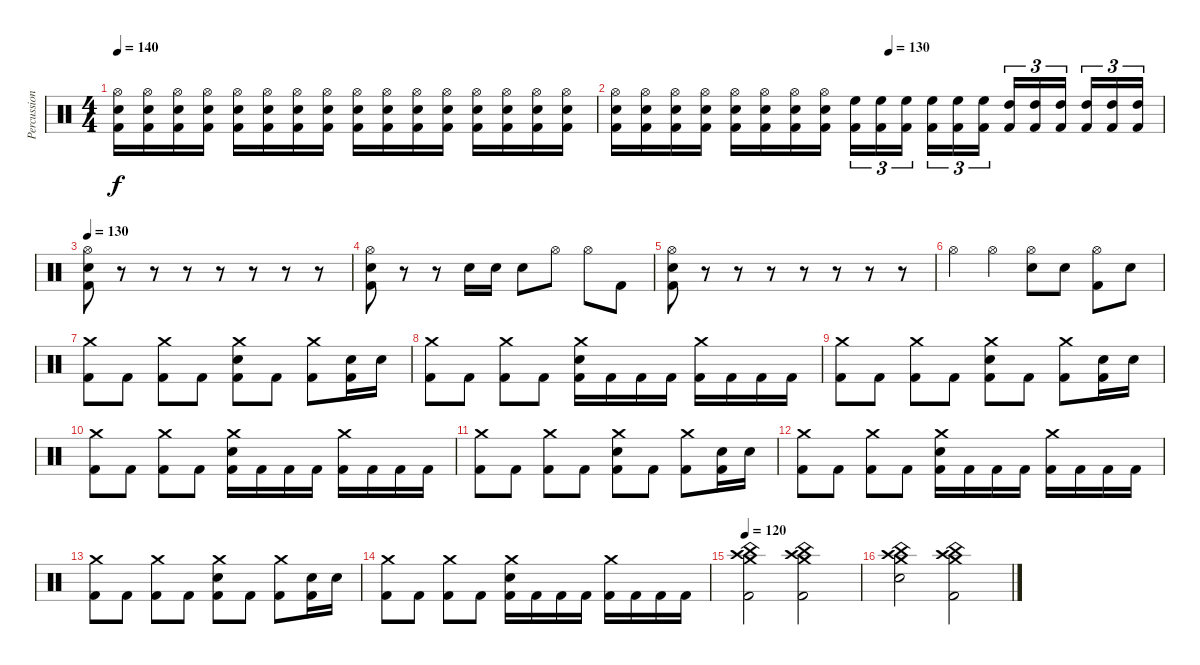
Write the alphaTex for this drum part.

\track ("Percussion" "Percussion") {instrument percussion}
\staff {score}
\articulation defaults
\ts (4 4)
\tempo 140
\clef neutral
\ks c
("Hi-Hat (open)" "Electric Snare (hit)" "Kick (hit) 2").16{dy f} ("Hi-Hat (open)" "Electric Snare (hit)" "Kick (hit) 2").16 ("Hi-Hat (open)" "Electric Snare (hit)" "Kick (hit) 2").16 ("Hi-Hat (open)" "Electric Snare (hit)" "Kick (hit) 2").16 ("Hi-Hat (open)" "Electric Snare (hit)" "Kick (hit) 2").16 ("Hi-Hat (open)" "Electric Snare (hit)" "Kick (hit) 2").16 ("Hi-Hat (open)" "Electric Snare (hit)" "Kick (hit) 2").16 ("Hi-Hat (open)" "Electric Snare (hit)" "Kick (hit) 2").16 ("Hi-Hat (open)" "Electric Snare (hit)" "Kick (hit) 2").16 ("Hi-Hat (open)" "Electric Snare (hit)" "Kick (hit) 2").16 ("Hi-Hat (open)" "Electric Snare (hit)" "Kick (hit) 2").16 ("Hi-Hat (open)" "Electric Snare (hit)" "Kick (hit) 2").16 ("Hi-Hat (open)" "Electric Snare (hit)" "Kick (hit) 2").16 ("Hi-Hat (open)" "Electric Snare (hit)" "Kick (hit) 2").16 ("Hi-Hat (open)" "Electric Snare (hit)" "Kick (hit) 2").16 ("Hi-Hat (open)" "Electric Snare (hit)" "Kick (hit) 2").16 |
\tempo (130 0.5)
("Hi-Hat (open)" "Electric Snare (hit)" "Kick (hit) 2").16 ("Hi-Hat (open)" "Electric Snare (hit)" "Kick (hit) 2").16 ("Hi-Hat (open)" "Electric Snare (hit)" "Kick (hit) 2").16 ("Hi-Hat (open)" "Electric Snare (hit)" "Kick (hit) 2").16 ("Hi-Hat (open)" "Electric Snare (hit)" "Kick (hit) 2").16 ("Hi-Hat (open)" "Electric Snare (hit)" "Kick (hit) 2").16 ("Hi-Hat (open)" "Electric Snare (hit)" "Kick (hit) 2").16 ("Hi-Hat (open)" "Electric Snare (hit)" "Kick (hit) 2").16 ("High Floor Tom (hit)" "Kick (hit) 2").16{tu (3 2)} ("High Floor Tom (hit)" "Kick (hit) 2").16{tu (3 2)} ("High Floor Tom (hit)" "Kick (hit) 2").16{tu (3 2) beam splitsecondary} ("High Floor Tom (hit)" "Kick (hit) 2").16{tu (3 2)} ("High Floor Tom (hit)" "Kick (hit) 2").16{tu (3 2)} ("High Floor Tom (hit)" "Kick (hit) 2").16{tu (3 2)} ("High Tom (hit)" "Kick (hit) 2").16{tu (3 2)} ("High Tom (hit)" "Kick (hit) 2").16{tu (3 2)} ("High Tom (hit)" "Kick (hit) 2").16{tu (3 2) beam splitsecondary} ("High Tom (hit)" "Kick (hit) 2").16{tu (3 2)} ("High Tom (hit)" "Kick (hit) 2").16{tu (3 2)} ("High Tom (hit)" "Kick (hit) 2").16{tu (3 2)} |
\tempo 130
("Hi-Hat (open)" "Electric Snare (hit)" "Kick (hit) 2").8 r.8 r.8 r.8 r.8 r.8 r.8 r.8 |
("Hi-Hat (open)" "Electric Snare (hit)" "Kick (hit) 2").8 r.8 r.8 "Electric Snare (hit)".16 "Electric Snare (hit)".16 "Electric Snare (hit)".8 "Hi-Hat (open)".8 "Hi-Hat (open)".8 "Kick (hit) 2".8 |
("Hi-Hat (open)" "Electric Snare (hit)" "Kick (hit) 2").8 r.8 r.8 r.8 r.8 r.8 r.8 r.8 |
"Hi-Hat (open)".4 "Hi-Hat (open)".4 ("Hi-Hat (open)" "Electric Snare (hit)").8 "Electric Snare (hit)".8 ("Hi-Hat (open)" "Kick (hit) 2").8 "Electric Snare (hit)".8 |
("Crash medium (hit)" "Kick (hit) 2").8 "Kick (hit) 2".8 ("Crash medium (hit)" "Kick (hit) 2").8 "Kick (hit) 2".8 ("Crash medium (hit)" "Electric Snare (hit)" "Kick (hit) 2").8 "Kick (hit) 2".8 ("Crash medium (hit)" "Kick (hit) 2").8 ("Electric Snare (hit)" "Kick (hit) 2").16 "Electric Snare (hit)".16 |
("Crash medium (hit)" "Kick (hit) 2").8 "Kick (hit) 2".8 ("Crash medium (hit)" "Kick (hit) 2").8 "Kick (hit) 2".8 ("Crash medium (hit)" "Electric Snare (hit)" "Kick (hit) 2").16 "Kick (hit) 2".16 "Kick (hit) 2".16 "Kick (hit) 2".16 ("Crash medium (hit)" "Kick (hit) 2").16 "Kick (hit) 2".16 "Kick (hit) 2".16 "Kick (hit) 2".16 |
("Crash medium (hit)" "Kick (hit) 2").8 "Kick (hit) 2".8 ("Crash medium (hit)" "Kick (hit) 2").8 "Kick (hit) 2".8 ("Crash medium (hit)" "Electric Snare (hit)" "Kick (hit) 2").8 "Kick (hit) 2".8 ("Crash medium (hit)" "Kick (hit) 2").8 ("Electric Snare (hit)" "Kick (hit) 2").16 "Electric Snare (hit)".16 |
("Crash medium (hit)" "Kick (hit) 2").8 "Kick (hit) 2".8 ("Crash medium (hit)" "Kick (hit) 2").8 "Kick (hit) 2".8 ("Crash medium (hit)" "Electric Snare (hit)" "Kick (hit) 2").16 "Kick (hit) 2".16 "Kick (hit) 2".16 "Kick (hit) 2".16 ("Crash medium (hit)" "Kick (hit) 2").16 "Kick (hit) 2".16 "Kick (hit) 2".16 "Kick (hit) 2".16 |
("Crash medium (hit)" "Kick (hit) 2").8 "Kick (hit) 2".8 ("Crash medium (hit)" "Kick (hit) 2").8 "Kick (hit) 2".8 ("Crash medium (hit)" "Electric Snare (hit)" "Kick (hit) 2").8 "Kick (hit) 2".8 ("Crash medium (hit)" "Kick (hit) 2").8 ("Electric Snare (hit)" "Kick (hit) 2").16 "Electric Snare (hit)".16 |
("Crash medium (hit)" "Kick (hit) 2").8 "Kick (hit) 2".8 ("Crash medium (hit)" "Kick (hit) 2").8 "Kick (hit) 2".8 ("Crash medium (hit)" "Electric Snare (hit)" "Kick (hit) 2").16 "Kick (hit) 2".16 "Kick (hit) 2".16 "Kick (hit) 2".16 ("Crash medium (hit)" "Kick (hit) 2").16 "Kick (hit) 2".16 "Kick (hit) 2".16 "Kick (hit) 2".16 |
("Crash medium (hit)" "Kick (hit) 2").8 "Kick (hit) 2".8 ("Crash medium (hit)" "Kick (hit) 2").8 "Kick (hit) 2".8 ("Crash medium (hit)" "Electric Snare (hit)" "Kick (hit) 2").8 "Kick (hit) 2".8 ("Crash medium (hit)" "Kick (hit) 2").8 ("Electric Snare (hit)" "Kick (hit) 2").16 "Electric Snare (hit)".16 |
("Crash medium (hit)" "Kick (hit) 2").8 "Kick (hit) 2".8 ("Crash medium (hit)" "Kick (hit) 2").8 "Kick (hit) 2".8 ("Crash medium (hit)" "Electric Snare (hit)" "Kick (hit) 2").16 "Kick (hit) 2".16 "Kick (hit) 2".16 "Kick (hit) 2".16 ("Crash medium (hit)" "Kick (hit) 2").16 "Kick (hit) 2".16 "Kick (hit) 2".16 "Kick (hit) 2".16 |
\tempo 120
("Crash medium (hit)" "Crash high (hit)" "China (hit)" "Kick (hit) 2").2 ("Crash medium (hit)" "Crash high (hit)" "China (hit)" "Kick (hit) 2").2 |
("Crash medium (hit)" "Crash high (hit)" "China (hit)" "Electric Snare (hit)").2 ("Crash medium (hit)" "Crash high (hit)" "China (hit)" "Kick (hit) 2").2
